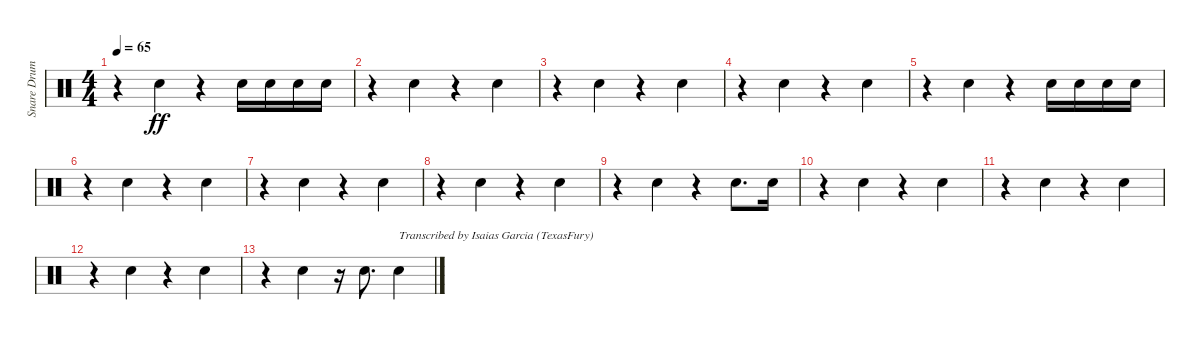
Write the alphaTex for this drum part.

\track ("Snare Drum" "Snare Drum") {instrument percussion}
\staff {score}
\articulation defaults
\ts (4 4)
\tempo 65
\clef neutral
\ks c
r.4{dy ff beam merge} "Electric Snare (hit)".4 r.4 "Electric Snare (hit)".16 "Electric Snare (hit)".16 "Electric Snare (hit)".16 "Electric Snare (hit)".16 |
r.4 "Electric Snare (hit)".4 r.4 "Electric Snare (hit)".4 |
r.4 "Electric Snare (hit)".4 r.4 "Electric Snare (hit)".4 |
r.4 "Electric Snare (hit)".4 r.4 "Electric Snare (hit)".4 |
r.4{beam merge} "Electric Snare (hit)".4 r.4 "Electric Snare (hit)".16 "Electric Snare (hit)".16 "Electric Snare (hit)".16 "Electric Snare (hit)".16 |
r.4 "Electric Snare (hit)".4 r.4 "Electric Snare (hit)".4 |
r.4 "Electric Snare (hit)".4 r.4 "Electric Snare (hit)".4 |
r.4 "Electric Snare (hit)".4 r.4 "Electric Snare (hit)".4 |
r.4{beam merge} "Electric Snare (hit)".4 r.4 "Electric Snare (hit)".8{d} "Electric Snare (hit)".16 |
r.4 "Electric Snare (hit)".4 r.4 "Electric Snare (hit)".4 |
r.4 "Electric Snare (hit)".4 r.4 "Electric Snare (hit)".4 |
r.4 "Electric Snare (hit)".4 r.4 "Electric Snare (hit)".4 |
r.4 "Electric Snare (hit)".4 r.16 "Electric Snare (hit)".8{d} "Electric Snare (hit)".4{txt "Transcribed by Isaias Garcia (TexasFury)"}
